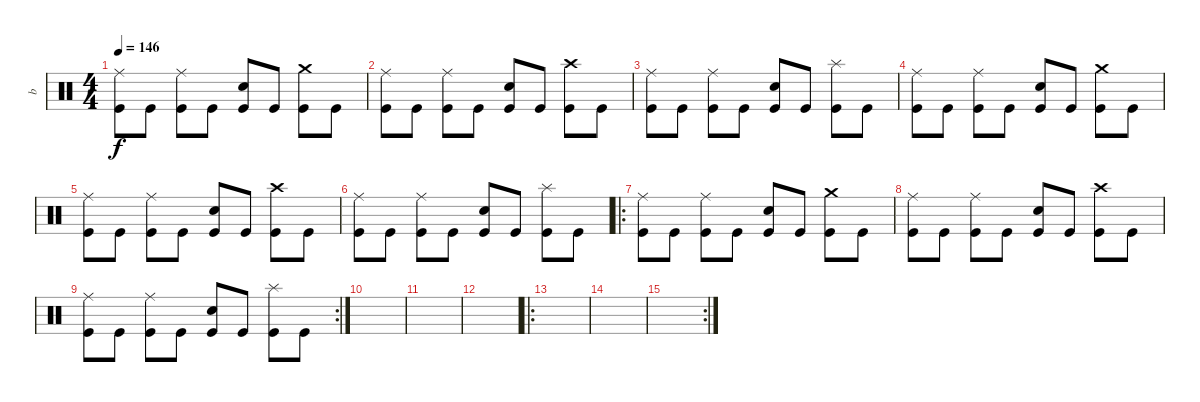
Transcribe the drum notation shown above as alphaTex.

\track ("b" "b") {instrument percussion}
\staff {score}
\articulation defaults
\ts (4 4)
\tempo 146
\clef neutral
\ks c
("Ride (middle)" "Kick (hit)").8{dy f} "Kick (hit)".8 ("Ride (middle)" "Kick (hit)").8 "Kick (hit)".8 ("Electric Snare (hit)" "Kick (hit)").8 "Kick (hit)".8 ("Crash medium (hit)" "Kick (hit)").8 "Kick (hit)".8 |
("Ride (middle)" "Kick (hit)").8 "Kick (hit)".8 ("Ride (middle)" "Kick (hit)").8 "Kick (hit)".8 ("Electric Snare (hit)" "Kick (hit)").8 "Kick (hit)".8 ("Crash high (hit)" "Kick (hit)").8 "Kick (hit)".8 |
("Ride (middle)" "Kick (hit)").8 "Kick (hit)".8 ("Ride (middle)" "Kick (hit)").8 "Kick (hit)".8 ("Electric Snare (hit)" "Kick (hit)").8 "Kick (hit)".8 ("Splash (hit)" "Kick (hit)").8 "Kick (hit)".8 |
("Ride (middle)" "Kick (hit)").8 "Kick (hit)".8 ("Ride (middle)" "Kick (hit)").8 "Kick (hit)".8 ("Electric Snare (hit)" "Kick (hit)").8 "Kick (hit)".8 ("Crash medium (hit)" "Kick (hit)").8 "Kick (hit)".8 |
("Ride (middle)" "Kick (hit)").8 "Kick (hit)".8 ("Ride (middle)" "Kick (hit)").8 "Kick (hit)".8 ("Electric Snare (hit)" "Kick (hit)").8 "Kick (hit)".8 ("Crash high (hit)" "Kick (hit)").8 "Kick (hit)".8 |
("Ride (middle)" "Kick (hit)").8 "Kick (hit)".8 ("Ride (middle)" "Kick (hit)").8 "Kick (hit)".8 ("Electric Snare (hit)" "Kick (hit)").8 "Kick (hit)".8 ("Splash (hit)" "Kick (hit)").8 "Kick (hit)".8 |
\ro
("Ride (middle)" "Kick (hit)").8 "Kick (hit)".8 ("Ride (middle)" "Kick (hit)").8 "Kick (hit)".8 ("Electric Snare (hit)" "Kick (hit)").8 "Kick (hit)".8 ("Crash medium (hit)" "Kick (hit)").8 "Kick (hit)".8 |
("Ride (middle)" "Kick (hit)").8 "Kick (hit)".8 ("Ride (middle)" "Kick (hit)").8 "Kick (hit)".8 ("Electric Snare (hit)" "Kick (hit)").8 "Kick (hit)".8 ("Crash high (hit)" "Kick (hit)").8 "Kick (hit)".8 |
\rc 2
("Ride (middle)" "Kick (hit)").8 "Kick (hit)".8 ("Ride (middle)" "Kick (hit)").8 "Kick (hit)".8 ("Electric Snare (hit)" "Kick (hit)").8 "Kick (hit)".8 ("Splash (hit)" "Kick (hit)").8 "Kick (hit)".8 |
|
|
|
\ro
|
|
\rc 2
